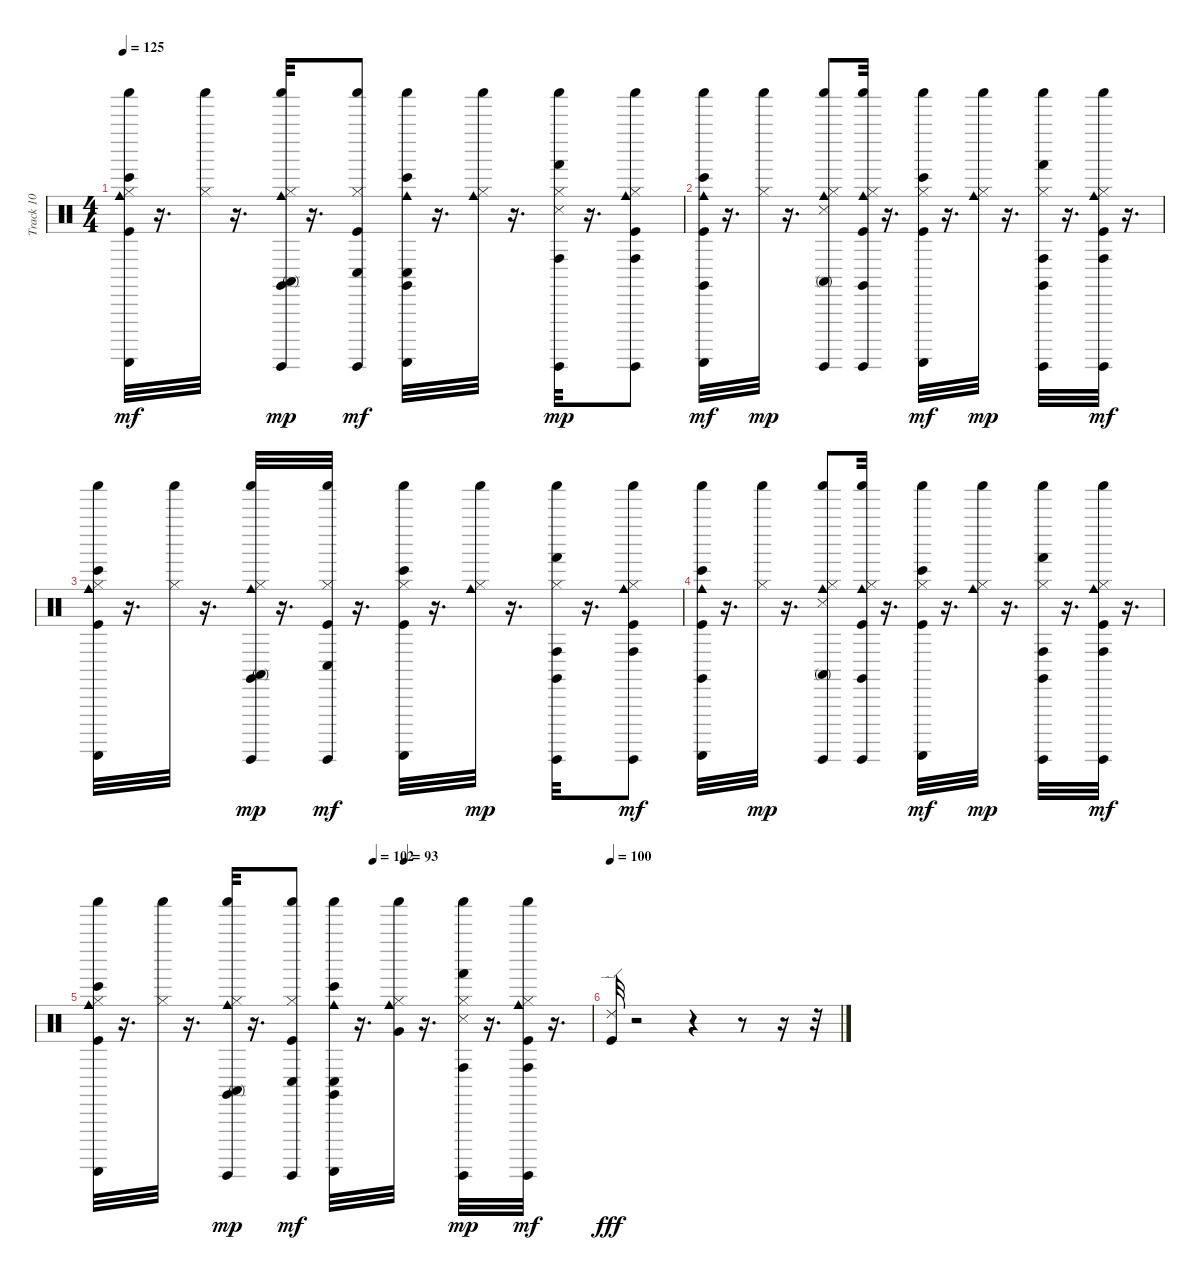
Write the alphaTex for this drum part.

\track ("Track 10" "Track 10") {instrument percussion}
\staff {score}
\articulation defaults
\ts (4 4)
\tempo 125
\clef neutral
\ks c
("Shaker (hit)" "Bongo High (hit)" "Cowbell medium (hit)" "Guiro (scrap-return)" "Kick (hit)" "Hi-Hat (closed)").32{dy mf} r.16{d} ("Shaker (hit)" "Hi-Hat (closed)").32 r.16{d} ("Shaker (hit)" "Claves (hit)" "Conga high (mute)" "Cowbell medium (hit)" "Guiro (hit)" "Hi-Hat (closed)").32{dy mp} r.16{d} ("Shaker (hit)" "Conga low (hit)" "Guiro (hit)" "Kick (hit)" "Hi-Hat (closed)").8{dy mf} ("Shaker (hit)" "Claves (hit)" "Conga low (hit)" "Bongo High (hit)" "Cowbell medium (hit)" "Guiro (scrap-return)").32 r.16{d} ("Shaker (hit)" "Cowbell medium (hit)" "Hi-Hat (closed)").32 r.16{d} ("Shaker (hit)" "Conga high (hit)" "Hand (hit)" "Guiro (hit)" "Hi-Hat (closed)" "Snare (side stick) 3").32{dy mp} r.16{d} ("Shaker (hit)" "Conga high (hit)" "Cowbell medium (hit)" "Guiro (hit)" "Kick (hit)" "Hi-Hat (closed)").8 |
("Shaker (hit)" "Claves (hit)" "Bongo High (hit)" "Cowbell medium (hit)" "Guiro (scrap-return)" "Kick (hit)").32{dy mf} r.16{d} ("Shaker (hit)" "Hi-Hat (closed)").32{dy mp} r.16{d} ("Shaker (hit)" "Conga high (mute)" "Cowbell medium (hit)" "Guiro (hit)" "Hi-Hat (closed)" "Snare (side stick) 3").8 ("Shaker (hit)" "Claves (hit)" "Cowbell medium (hit)" "Guiro (hit)" "Kick (hit)" "Hi-Hat (closed)").32 r.16{d} ("Shaker (hit)" "Bongo High (hit)" "Guiro (scrap-return)" "Kick (hit)" "Hi-Hat (closed)").32{dy mf} r.16{d} ("Shaker (hit)" "Cowbell medium (hit)" "Hi-Hat (closed)").32{dy mp} r.16{d} ("Shaker (hit)" "Claves (hit)" "Conga high (hit)" "Hand (hit)" "Guiro (hit)" "Hi-Hat (closed)").32 r.16{d} ("Shaker (hit)" "Conga high (hit)" "Cowbell medium (hit)" "Guiro (hit)" "Kick (hit)" "Hi-Hat (closed)").32{dy mf} r.16{d} |
("Shaker (hit)" "Bongo High (hit)" "Cowbell medium (hit)" "Guiro (scrap-return)" "Kick (hit)" "Hi-Hat (closed)").32 r.16{d} ("Shaker (hit)" "Hi-Hat (closed)").32 r.16{d} ("Shaker (hit)" "Claves (hit)" "Conga high (mute)" "Cowbell medium (hit)" "Guiro (hit)" "Hi-Hat (closed)").32{dy mp} r.16{d} ("Shaker (hit)" "Conga low (hit)" "Guiro (hit)" "Kick (hit)" "Hi-Hat (closed)").32{dy mf} r.16{d} ("Shaker (hit)" "Bongo High (hit)" "Guiro (scrap-return)" "Kick (hit)" "Hi-Hat (closed)").32 r.16{d} ("Shaker (hit)" "Cowbell medium (hit)" "Hi-Hat (closed)").32{dy mp} r.16{d} ("Shaker (hit)" "Claves (hit)" "Conga high (hit)" "Hand (hit)" "Guiro (hit)" "Hi-Hat (closed)").32 r.16{d} ("Shaker (hit)" "Conga high (hit)" "Cowbell medium (hit)" "Guiro (hit)" "Kick (hit)" "Hi-Hat (closed)").8{dy mf} |
("Shaker (hit)" "Claves (hit)" "Bongo High (hit)" "Cowbell medium (hit)" "Guiro (scrap-return)" "Kick (hit)").32 r.16{d} ("Shaker (hit)" "Hi-Hat (closed)").32{dy mp} r.16{d} ("Shaker (hit)" "Conga high (mute)" "Cowbell medium (hit)" "Guiro (hit)" "Hi-Hat (closed)" "Snare (side stick) 3").8 ("Shaker (hit)" "Claves (hit)" "Cowbell medium (hit)" "Guiro (hit)" "Kick (hit)" "Hi-Hat (closed)").32 r.16{d} ("Shaker (hit)" "Bongo High (hit)" "Guiro (scrap-return)" "Kick (hit)" "Hi-Hat (closed)").32{dy mf} r.16{d} ("Shaker (hit)" "Cowbell medium (hit)" "Hi-Hat (closed)").32{dy mp} r.16{d} ("Shaker (hit)" "Claves (hit)" "Conga high (hit)" "Hand (hit)" "Guiro (hit)" "Hi-Hat (closed)").32 r.16{d} ("Shaker (hit)" "Conga high (hit)" "Cowbell medium (hit)" "Guiro (hit)" "Kick (hit)" "Hi-Hat (closed)").32{dy mf} r.16{d} |
\tempo (102 0.5625)
\tempo (93 0.625)
("Shaker (hit)" "Bongo High (hit)" "Cowbell medium (hit)" "Guiro (scrap-return)" "Kick (hit)" "Hi-Hat (closed)").32 r.16{d} ("Shaker (hit)" "Hi-Hat (closed)").32 r.16{d} ("Shaker (hit)" "Claves (hit)" "Conga high (mute)" "Cowbell medium (hit)" "Guiro (hit)" "Hi-Hat (closed)").32{dy mp} r.16{d} ("Shaker (hit)" "Conga low (hit)" "Guiro (hit)" "Kick (hit)" "Hi-Hat (closed)").8{dy mf} ("Shaker (hit)" "Claves (hit)" "Conga low (hit)" "Bongo High (hit)" "Cowbell medium (hit)" "Guiro (scrap-return)").32 r.16{d} ("Shaker (hit)" "Cowbell medium (hit)" "Hi-Hat (closed)" "Very Low Tom (hit)").32 r.16{d} ("Shaker (hit)" "Conga high (hit)" "Hand (hit)" "Guiro (hit)" "Hi-Hat (closed)" "Snare (side stick) 3").32{dy mp} r.16{d} ("Shaker (hit)" "Conga high (hit)" "Cowbell medium (hit)" "Guiro (hit)" "Kick (hit)" "Hi-Hat (closed)").32{dy mf} r.16{d} |
\tempo 100
("Ride (edge) 2" "Kick (hit)").32{dy fff} r.2 r.4 r.8 r.16 r.32
